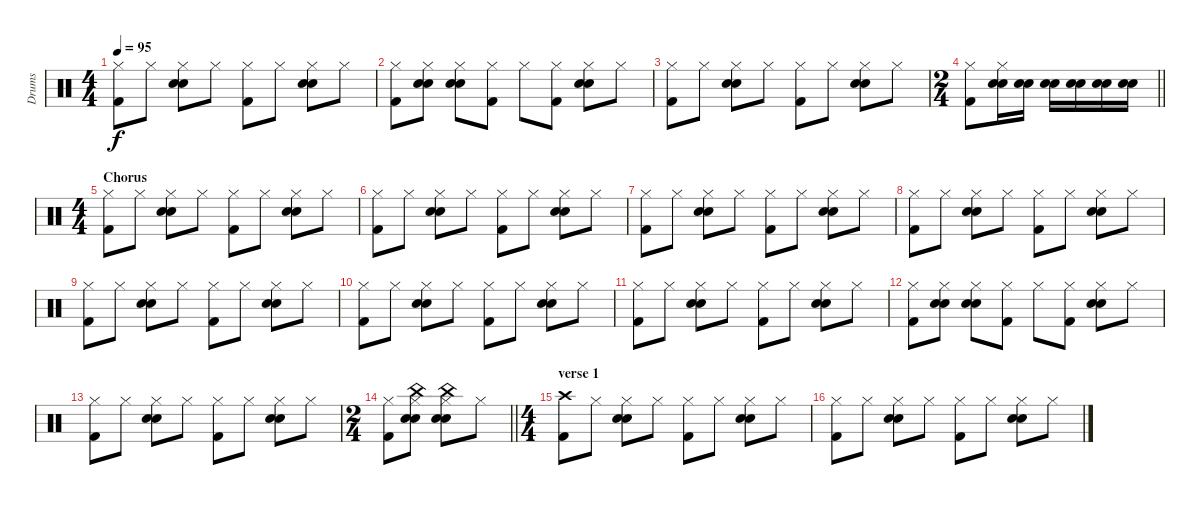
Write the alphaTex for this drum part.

\track ("Drums" "Drums") {instrument percussion}
\staff {score}
\articulation defaults
\ts (4 4)
\tempo 95
\clef neutral
\ks aminor
("Hi-Hat (closed)" "Kick (hit) 2").8{dy f} "Hi-Hat (closed)".8 ("Hi-Hat (closed)" "Snare (hit) 2" "Electric Snare (hit)").8 "Hi-Hat (closed)".8 ("Hi-Hat (closed)" "Kick (hit) 2").8 "Hi-Hat (closed)".8 ("Hi-Hat (closed)" "Snare (hit) 2" "Electric Snare (hit)").8 "Hi-Hat (closed)".8 |
("Hi-Hat (closed)" "Kick (hit) 2").8 ("Hi-Hat (closed)" "Snare (hit) 2" "Electric Snare (hit)").8 ("Hi-Hat (closed)" "Snare (hit) 2" "Electric Snare (hit)").8 ("Hi-Hat (closed)" "Kick (hit) 2").8 "Hi-Hat (closed)".8 ("Hi-Hat (closed)" "Kick (hit) 2").8 ("Hi-Hat (closed)" "Snare (hit) 2" "Electric Snare (hit)").8 "Hi-Hat (closed)".8 |
("Hi-Hat (closed)" "Kick (hit) 2").8 "Hi-Hat (closed)".8 ("Hi-Hat (closed)" "Snare (hit) 2" "Electric Snare (hit)").8 "Hi-Hat (closed)".8 ("Hi-Hat (closed)" "Kick (hit) 2").8 "Hi-Hat (closed)".8 ("Hi-Hat (closed)" "Snare (hit) 2" "Electric Snare (hit)").8 "Hi-Hat (closed)".8 |
\ts (2 4)
\barLineRight lightlight
("Hi-Hat (closed)" "Kick (hit) 2").8 ("Hi-Hat (closed)" "Snare (hit) 2" "Electric Snare (hit)").16 ("Snare (hit) 2" "Electric Snare (hit)").16 ("Snare (hit) 2" "Electric Snare (hit)").16 ("Snare (hit) 2" "Electric Snare (hit)").16 ("Snare (hit) 2" "Electric Snare (hit)").16 ("Snare (hit) 2" "Electric Snare (hit)").16 |
\ts (4 4)
\section ("" "Chorus")
("Hi-Hat (closed)" "Kick (hit) 2").8 "Hi-Hat (closed)".8 ("Hi-Hat (closed)" "Snare (hit) 2" "Electric Snare (hit)").8 "Hi-Hat (closed)".8 ("Hi-Hat (closed)" "Kick (hit) 2").8 "Hi-Hat (closed)".8 ("Hi-Hat (closed)" "Snare (hit) 2" "Electric Snare (hit)").8 "Hi-Hat (closed)".8 |
("Hi-Hat (closed)" "Kick (hit) 2").8 "Hi-Hat (closed)".8 ("Hi-Hat (closed)" "Snare (hit) 2" "Electric Snare (hit)").8 "Hi-Hat (closed)".8 ("Hi-Hat (closed)" "Kick (hit) 2").8 "Hi-Hat (closed)".8 ("Hi-Hat (closed)" "Snare (hit) 2" "Electric Snare (hit)").8 "Hi-Hat (closed)".8 |
("Hi-Hat (closed)" "Kick (hit) 2").8 "Hi-Hat (closed)".8 ("Hi-Hat (closed)" "Snare (hit) 2" "Electric Snare (hit)").8 "Hi-Hat (closed)".8 ("Hi-Hat (closed)" "Kick (hit) 2").8 "Hi-Hat (closed)".8 ("Hi-Hat (closed)" "Snare (hit) 2" "Electric Snare (hit)").8 "Hi-Hat (closed)".8 |
("Hi-Hat (closed)" "Kick (hit) 2").8 "Hi-Hat (closed)".8 ("Hi-Hat (closed)" "Snare (hit) 2" "Electric Snare (hit)").8 "Hi-Hat (closed)".8 ("Hi-Hat (closed)" "Kick (hit) 2").8 "Hi-Hat (closed)".8 ("Hi-Hat (closed)" "Snare (hit) 2" "Electric Snare (hit)").8 "Hi-Hat (closed)".8 |
("Hi-Hat (closed)" "Kick (hit) 2").8 "Hi-Hat (closed)".8 ("Hi-Hat (closed)" "Snare (hit) 2" "Electric Snare (hit)").8 "Hi-Hat (closed)".8 ("Hi-Hat (closed)" "Kick (hit) 2").8 "Hi-Hat (closed)".8 ("Hi-Hat (closed)" "Snare (hit) 2" "Electric Snare (hit)").8 "Hi-Hat (closed)".8 |
("Hi-Hat (closed)" "Kick (hit) 2").8 "Hi-Hat (closed)".8 ("Hi-Hat (closed)" "Snare (hit) 2" "Electric Snare (hit)").8 "Hi-Hat (closed)".8 ("Hi-Hat (closed)" "Kick (hit) 2").8 "Hi-Hat (closed)".8 ("Hi-Hat (closed)" "Snare (hit) 2" "Electric Snare (hit)").8 "Hi-Hat (closed)".8 |
("Hi-Hat (closed)" "Kick (hit) 2").8 "Hi-Hat (closed)".8 ("Hi-Hat (closed)" "Snare (hit) 2" "Electric Snare (hit)").8 "Hi-Hat (closed)".8 ("Hi-Hat (closed)" "Kick (hit) 2").8 "Hi-Hat (closed)".8 ("Hi-Hat (closed)" "Snare (hit) 2" "Electric Snare (hit)").8 "Hi-Hat (closed)".8 |
("Hi-Hat (closed)" "Kick (hit) 2").8 ("Hi-Hat (closed)" "Snare (hit) 2" "Electric Snare (hit)").8 ("Hi-Hat (closed)" "Snare (hit) 2" "Electric Snare (hit)").8 ("Hi-Hat (closed)" "Kick (hit) 2").8 "Hi-Hat (closed)".8 ("Hi-Hat (closed)" "Kick (hit) 2").8 ("Hi-Hat (closed)" "Snare (hit) 2" "Electric Snare (hit)").8 "Hi-Hat (closed)".8 |
("Hi-Hat (closed)" "Kick (hit) 2").8 "Hi-Hat (closed)".8 ("Hi-Hat (closed)" "Snare (hit) 2" "Electric Snare (hit)").8 "Hi-Hat (closed)".8 ("Hi-Hat (closed)" "Kick (hit) 2").8 "Hi-Hat (closed)".8 ("Hi-Hat (closed)" "Snare (hit) 2" "Electric Snare (hit)").8 "Hi-Hat (closed)".8 |
\ts (2 4)
\barLineRight lightlight
("Hi-Hat (closed)" "Kick (hit) 2").8 ("Hi-Hat (closed)" "China (hit)" "Snare (hit) 2" "Electric Snare (hit)").8 ("Hi-Hat (closed)" "China (hit)" "Snare (hit) 2" "Electric Snare (hit)").8 "Hi-Hat (closed)".8 |
\ts (4 4)
\section ("" "verse 1")
("Crash high (hit)" "Kick (hit) 2").8 "Hi-Hat (closed)".8 ("Hi-Hat (closed)" "Snare (hit) 2" "Electric Snare (hit)").8 "Hi-Hat (closed)".8 ("Hi-Hat (closed)" "Kick (hit) 2").8 "Hi-Hat (closed)".8 ("Hi-Hat (closed)" "Snare (hit) 2" "Electric Snare (hit)").8 "Hi-Hat (closed)".8 |
("Hi-Hat (closed)" "Kick (hit) 2").8 "Hi-Hat (closed)".8 ("Hi-Hat (closed)" "Snare (hit) 2" "Electric Snare (hit)").8 "Hi-Hat (closed)".8 ("Hi-Hat (closed)" "Kick (hit) 2").8 "Hi-Hat (closed)".8 ("Hi-Hat (closed)" "Snare (hit) 2" "Electric Snare (hit)").8 "Hi-Hat (closed)".8
